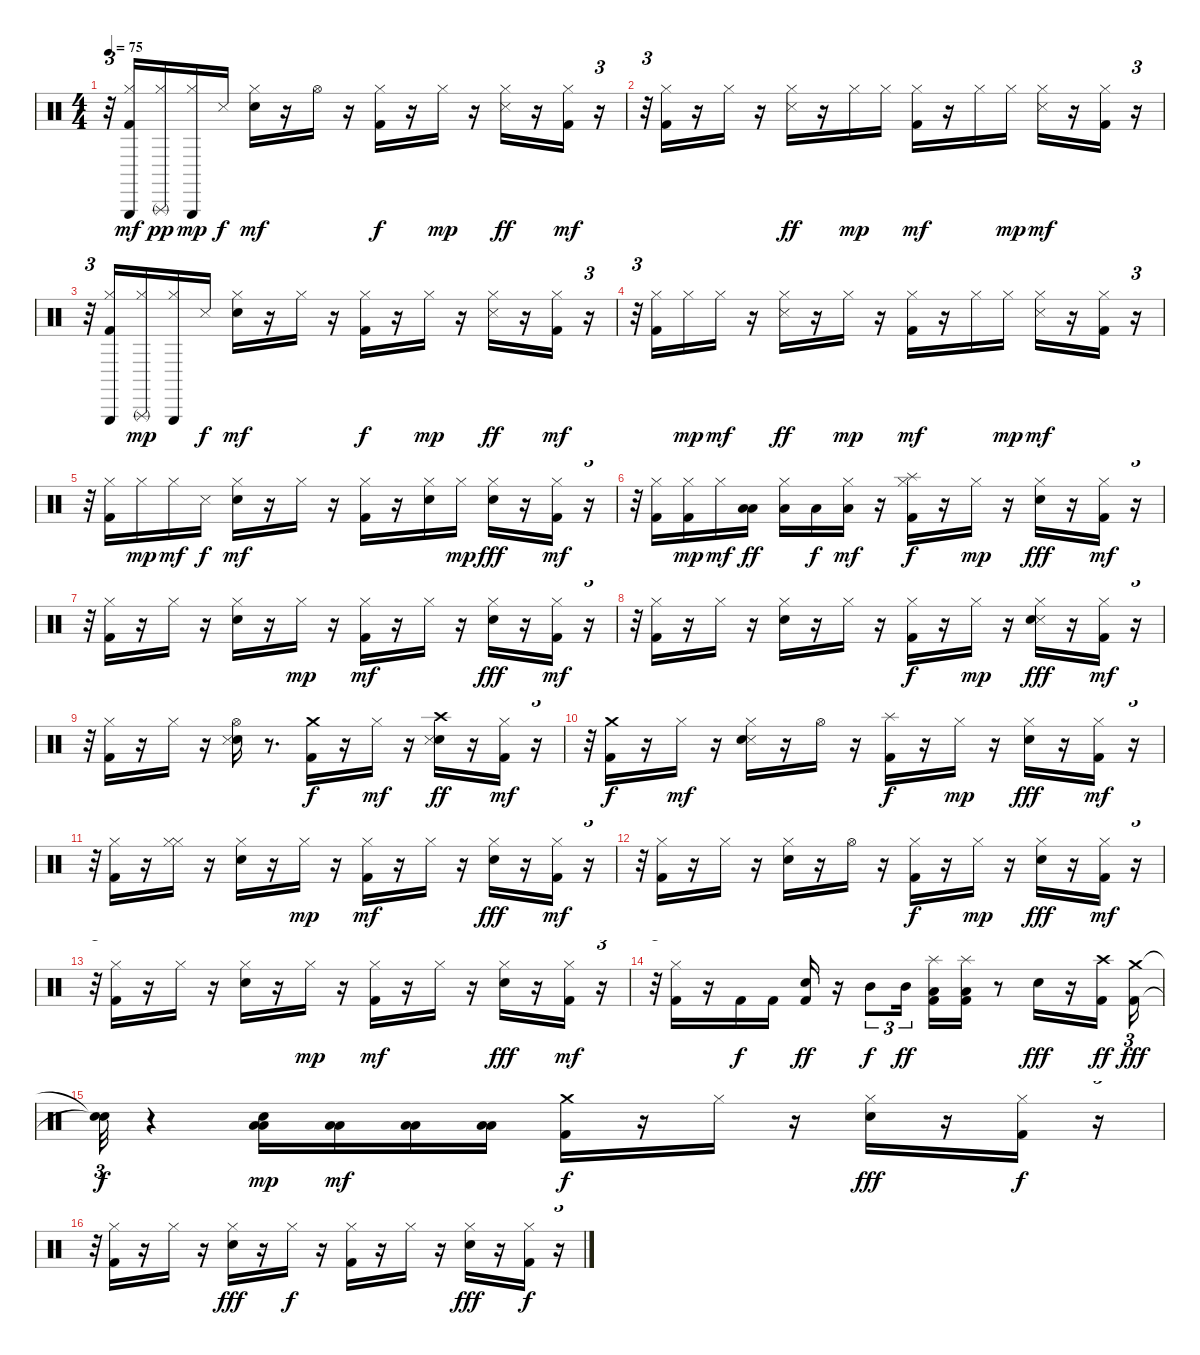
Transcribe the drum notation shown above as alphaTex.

\track "" {instrument percussion}
\staff {score}
\articulation defaults
\ts (4 4)
\tempo 75
\clef neutral
\ks c
r.32{tu (3 2) dy mf} ("Kick (hit) 2" "Triangle (hit)" "Hi-Hat (closed)").16 ("Hi-Hat (closed)" "Triangle (rnute)").16{dy pp} ("Hi-Hat (closed)" "Triangle (hit)").16{dy mp} "Snare (side stick) 3".16{dy f} ("Snare (hit) 2" "Hi-Hat (closed)").16{dy mf} r.16 "Hi-Hat (open)".16 r.16 ("Hi-Hat (closed)" "Kick (hit) 2").16{dy f} r.16 "Hi-Hat (closed)".16{dy mp} r.16 ("Hi-Hat (closed)" "Snare (side stick) 3").16{dy ff} r.16 ("Hi-Hat (closed)" "Kick (hit) 2").16{dy mf} r.16{tu (3 2)} |
r.32{tu (3 2)} ("Hi-Hat (closed)" "Kick (hit) 2").16 r.16 "Hi-Hat (closed)".16 r.16 ("Hi-Hat (closed)" "Snare (side stick) 3").16{dy ff} r.16 "Hi-Hat (closed)".16{dy mp} "Hi-Hat (closed)".16 ("Hi-Hat (closed)" "Kick (hit) 2").16{dy mf} r.16 "Hi-Hat (closed)".16 "Hi-Hat (closed)".16{dy mp} ("Snare (side stick) 3" "Hi-Hat (closed)").16{dy mf} r.16 ("Kick (hit) 2" "Hi-Hat (closed)").16 r.16{tu (3 2)} |
r.32{tu (3 2)} ("Triangle (hit)" "Kick (hit) 2" "Hi-Hat (closed)").16 ("Hi-Hat (closed)" "Triangle (rnute)").16{dy mp} ("Hi-Hat (closed)" "Triangle (hit)").16 "Snare (side stick) 3".16{dy f} ("Hi-Hat (closed)" "Snare (hit) 2").16{dy mf} r.16 "Hi-Hat (closed)".16 r.16 ("Kick (hit) 2" "Hi-Hat (closed)").16{dy f} r.16 "Hi-Hat (closed)".16{dy mp} r.16 ("Hi-Hat (closed)" "Snare (side stick) 3").16{dy ff} r.16 ("Kick (hit) 2" "Hi-Hat (closed)").16{dy mf} r.16{tu (3 2)} |
r.32{tu (3 2)} ("Kick (hit) 2" "Hi-Hat (closed)").16 "Hi-Hat (closed)".16{dy mp} "Hi-Hat (closed)".16{dy mf} r.16 ("Hi-Hat (closed)" "Snare (side stick) 3").16{dy ff} r.16 "Hi-Hat (closed)".16{dy mp} r.16 ("Kick (hit) 2" "Hi-Hat (closed)").16{dy mf} r.16 "Hi-Hat (closed)".16 "Hi-Hat (closed)".16{dy mp} ("Snare (side stick) 3" "Hi-Hat (closed)").16{dy mf} r.16 ("Hi-Hat (closed)" "Kick (hit) 2").16 r.16{tu (3 2)} |
r.32{tu (3 2)} ("Hi-Hat (closed)" "Kick (hit) 2").16 "Hi-Hat (closed)".16{dy mp} "Hi-Hat (closed)".16{dy mf} "Snare (side stick) 3".16{dy f} ("Snare (hit) 2" "Hi-Hat (closed)").16{dy mf} r.16 "Hi-Hat (closed)".16 r.16 ("Hi-Hat (closed)" "Kick (hit) 2").16 r.16 ("Electric Snare (hit)" "Hi-Hat (closed)").16 "Hi-Hat (closed)".16{dy mp} ("Hi-Hat (closed)" "Electric Snare (hit)").16{dy fff} r.16 ("Hi-Hat (closed)" "Kick (hit) 2").16{dy mf} r.16{tu (3 2)} |
r.32{tu (3 2)} ("Hi-Hat (closed)" "Kick (hit) 2").16 ("Kick (hit) 2" "Hi-Hat (closed)").16{dy mp} "Hi-Hat (closed)".16{dy mf} ("Low Tom (hit)" "Low Tom (hit)").16{dy ff} ("Hi-Hat (closed)" "Low Tom (hit)").16 "Low Floor Tom (hit)".16{dy f} ("Low Floor Tom (hit)" "Hi-Hat (closed)").16{dy mf} r.16 ("Splash (hit)" "Hi-Hat (closed)" "Kick (hit) 2").16{dy f} r.16 "Hi-Hat (closed)".16{dy mp} r.16 ("Electric Snare (hit)" "Hi-Hat (closed)").16{dy fff} r.16 ("Hi-Hat (closed)" "Kick (hit) 2").16{dy mf} r.16{tu (3 2)} |
r.32{tu (3 2)} ("Kick (hit) 2" "Hi-Hat (closed)").16 r.16 "Hi-Hat (closed)".16 r.16 ("Electric Snare (hit)" "Hi-Hat (closed)").16 r.16 "Hi-Hat (closed)".16{dy mp} r.16 ("Hi-Hat (closed)" "Kick (hit) 2").16{dy mf} r.16 "Hi-Hat (closed)".16 r.16 ("Hi-Hat (closed)" "Electric Snare (hit)").16{dy fff} r.16 ("Kick (hit) 2" "Hi-Hat (closed)").16{dy mf} r.16{tu (3 2)} |
r.32{tu (3 2)} ("Kick (hit) 2" "Hi-Hat (closed)").16 r.16 "Hi-Hat (closed)".16 r.16 ("Electric Snare (hit)" "Hi-Hat (closed)").16 r.16 "Hi-Hat (closed)".16 r.16 ("Kick (hit) 2" "Hi-Hat (closed)").16{dy f} r.16 "Hi-Hat (closed)".16{dy mp} r.16 ("Hi-Hat (closed)" "Snare (side stick) 3" "Electric Snare (hit)").16{dy fff} r.16 ("Hi-Hat (closed)" "Kick (hit) 2").16{dy mf} r.16{tu (3 2)} |
r.32{tu (3 2)} ("Hi-Hat (closed)" "Kick (hit) 2").16 r.16 "Hi-Hat (closed)".16 r.16 ("Electric Snare (hit)" "Snare (side stick) 3" "Hi-Hat (open)").16 r.8{d} ("Crash medium (hit)" "Kick (hit) 2").16{dy f} r.16 "Hi-Hat (closed)".16{dy mf} r.16 ("Electric Snare (hit)" "Snare (side stick) 3" "Crash high (hit)").16{dy ff} r.16 ("Kick (hit) 2" "Hi-Hat (closed)").16{dy mf} r.16{tu (3 2)} |
r.32{tu (3 2)} ("Kick (hit) 2" "Crash medium (hit)").16{dy f} r.16 "Hi-Hat (closed)".16{dy mf} r.16 ("Snare (side stick) 3" "Electric Snare (hit)" "Hi-Hat (closed)").16 r.16 "Hi-Hat (open)".16 r.16 ("Splash (hit)" "Kick (hit) 2").16{dy f} r.16 "Hi-Hat (closed)".16{dy mp} r.16 ("Hi-Hat (closed)" "Electric Snare (hit)").16{dy fff} r.16 ("Hi-Hat (closed)" "Kick (hit) 2").16{dy mf} r.16{tu (3 2)} |
r.32{tu (3 2)} ("Kick (hit) 2" "Hi-Hat (closed)").16 r.16 ("Hi-Hat (closed)" "Hi-Hat (closed)").16 r.16 ("Electric Snare (hit)" "Hi-Hat (closed)").16 r.16 "Hi-Hat (closed)".16{dy mp} r.16 ("Hi-Hat (closed)" "Kick (hit) 2").16{dy mf} r.16 "Hi-Hat (closed)".16 r.16 ("Hi-Hat (closed)" "Electric Snare (hit)").16{dy fff} r.16 ("Kick (hit) 2" "Hi-Hat (closed)").16{dy mf} r.16{tu (3 2)} |
r.32{tu (3 2)} ("Hi-Hat (closed)" "Kick (hit) 2").16 r.16 "Hi-Hat (closed)".16 r.16 ("Electric Snare (hit)" "Hi-Hat (closed)").16 r.16 "Hi-Hat (open)".16 r.16 ("Kick (hit) 2" "Hi-Hat (closed)").16{dy f} r.16 "Hi-Hat (closed)".16{dy mp} r.16 ("Electric Snare (hit)" "Hi-Hat (closed)").16{dy fff} r.16 ("Kick (hit) 2" "Hi-Hat (closed)").16{dy mf} r.16{tu (3 2)} |
r.32{tu (3 2)} ("Kick (hit) 2" "Hi-Hat (closed)").16 r.16 "Hi-Hat (closed)".16 r.16 ("Electric Snare (hit)" "Hi-Hat (closed)").16 r.16 "Hi-Hat (closed)".16{dy mp} r.16 ("Kick (hit) 2" "Hi-Hat (closed)").16{dy mf} r.16 "Hi-Hat (closed)".16 r.16 ("Hi-Hat (closed)" "Electric Snare (hit)").16{dy fff} r.16 ("Kick (hit) 2" "Hi-Hat (closed)").16{dy mf} r.16{tu (3 2)} |
r.32{tu (3 2)} ("Kick (hit) 2" "Hi-Hat (closed)").16 r.16 "Kick (hit) 2".16{dy f} "Kick (hit) 2".16 ("Kick (hit) 2" "Snare (hit) 2").16{dy ff} r.16 "Mid Tom (hit)".8{tu (3 2) dy f} "Mid Tom (hit)".16{tu (3 2) dy ff} ("Kick (hit) 2" "Splash (hit)" "Low Floor Tom (hit)").16 ("Kick (hit) 2" "Splash (hit)" "Low Floor Tom (hit)").16 r.8 "Electric Snare (hit)".16{dy fff} r.16 ("Kick (hit) 2" "Crash high (hit)").16{dy ff} ("Kick (hit) 2" "Crash medium (hit)").16{tu (3 2) dy fff} |
("Snare (hit)"{t} "Snare (hit)"{t}).32{tu (3 2) dy f} r.4 ("Low Floor Tom (hit)" "Electric Snare (hit)" "Low Floor Tom (hit)").16{dy mp} ("Low Floor Tom (hit)" "Low Floor Tom (hit)").16{dy mf} ("Low Floor Tom (hit)" "Low Floor Tom (hit)").16 ("Low Floor Tom (hit)" "Low Floor Tom (hit)").16 ("Crash medium (hit)" "Kick (hit) 2").16{dy f} r.16 "Hi-Hat (closed)".16 r.16 ("Hi-Hat (closed)" "Electric Snare (hit)").16{dy fff} r.16 ("Kick (hit) 2" "Hi-Hat (closed)").16{dy f} r.16{tu (3 2)} |
r.32{tu (3 2)} ("Kick (hit) 2" "Hi-Hat (closed)").16 r.16 "Hi-Hat (closed)".16 r.16 ("Hi-Hat (closed)" "Electric Snare (hit)").16{dy fff} r.16 "Hi-Hat (closed)".16{dy f} r.16 ("Hi-Hat (closed)" "Kick (hit) 2").16 r.16 "Hi-Hat (closed)".16 r.16 ("Hi-Hat (closed)" "Electric Snare (hit)").16{dy fff} r.16 ("Hi-Hat (closed)" "Kick (hit) 2").16{dy f} r.16{tu (3 2)}
